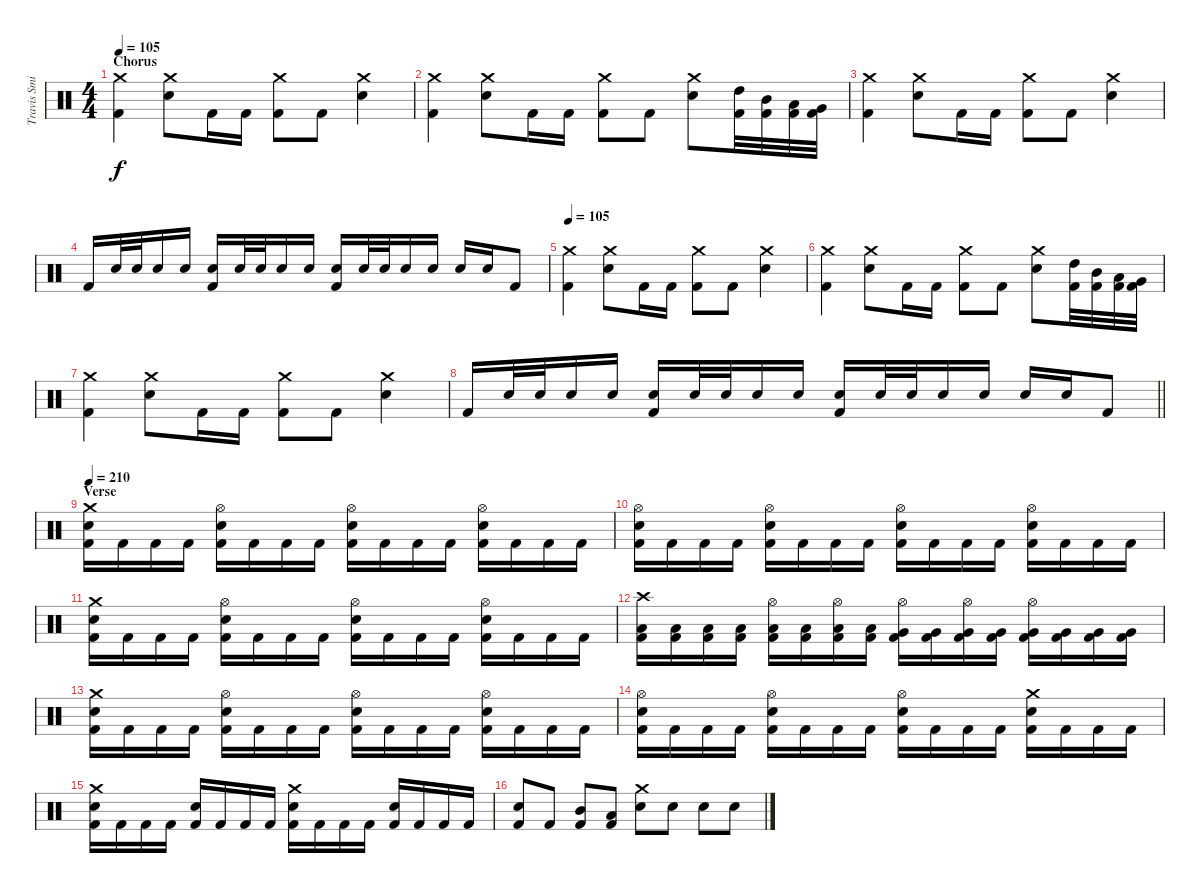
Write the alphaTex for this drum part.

\track ("Travis Smith" "Travis Smi") {instrument percussion}
\staff {score}
\articulation defaults
\ts (4 4)
\section ("" "Chorus")
\tempo 105
\clef neutral
\ks c
("Crash medium (hit)" "Kick (hit) 2").4{dy f} ("Crash medium (hit)" "Snare (hit) 2").8 "Kick (hit) 2".16 "Kick (hit) 2".16 ("Crash medium (hit)" "Kick (hit) 2").8 "Kick (hit) 2".8 ("Crash medium (hit)" "Snare (hit) 2").4 |
("Crash medium (hit)" "Kick (hit) 2").4 ("Crash medium (hit)" "Snare (hit) 2").8 "Kick (hit) 2".16 "Kick (hit) 2".16 ("Crash medium (hit)" "Kick (hit) 2").8 "Kick (hit) 2".8 ("Crash medium (hit)" "Snare (hit) 2").8 ("High Tom (hit)" "Kick (hit) 2").32 ("Mid Tom (hit)" "Kick (hit) 2").32 ("Low Tom (hit)" "Kick (hit) 2").32 ("Very Low Tom (hit)" "Kick (hit) 2").32 |
("Crash medium (hit)" "Kick (hit) 2").4 ("Crash medium (hit)" "Snare (hit) 2").8 "Kick (hit) 2".16 "Kick (hit) 2".16 ("Crash medium (hit)" "Kick (hit) 2").8 "Kick (hit) 2".8 ("Crash medium (hit)" "Snare (hit) 2").4 |
"Kick (hit) 2".16 "Snare (hit) 2".32 "Snare (hit) 2".32 "Snare (hit) 2".16 "Snare (hit) 2".16 ("Snare (hit) 2" "Kick (hit) 2").16 "Snare (hit) 2".32 "Snare (hit) 2".32 "Snare (hit) 2".16 "Snare (hit) 2".16 ("Snare (hit) 2" "Kick (hit) 2").16 "Snare (hit) 2".32 "Snare (hit) 2".32 "Snare (hit) 2".16 "Snare (hit) 2".16 "Snare (hit) 2".16 "Snare (hit) 2".16 "Kick (hit) 2".8 |
\tempo 105
("Crash medium (hit)" "Kick (hit) 2").4 ("Crash medium (hit)" "Snare (hit) 2").8 "Kick (hit) 2".16 "Kick (hit) 2".16 ("Crash medium (hit)" "Kick (hit) 2").8 "Kick (hit) 2".8 ("Crash medium (hit)" "Snare (hit) 2").4 |
("Crash medium (hit)" "Kick (hit) 2").4 ("Crash medium (hit)" "Snare (hit) 2").8 "Kick (hit) 2".16 "Kick (hit) 2".16 ("Crash medium (hit)" "Kick (hit) 2").8 "Kick (hit) 2".8 ("Crash medium (hit)" "Snare (hit) 2").8 ("High Tom (hit)" "Kick (hit) 2").32 ("Mid Tom (hit)" "Kick (hit) 2").32 ("Low Tom (hit)" "Kick (hit) 2").32 ("Very Low Tom (hit)" "Kick (hit) 2").32 |
("Crash medium (hit)" "Kick (hit) 2").4 ("Crash medium (hit)" "Snare (hit) 2").8 "Kick (hit) 2".16 "Kick (hit) 2".16 ("Crash medium (hit)" "Kick (hit) 2").8 "Kick (hit) 2".8 ("Crash medium (hit)" "Snare (hit) 2").4 |
\barLineRight lightlight "Kick (hit) 2".16 "Snare (hit) 2".32 "Snare (hit) 2".32 "Snare (hit) 2".16 "Snare (hit) 2".16
("Snare (hit) 2" "Kick (hit) 2").16 "Snare (hit) 2".32 "Snare (hit) 2".32 "Snare (hit) 2".16 "Snare (hit) 2".16 ("Snare (hit) 2" "Kick (hit) 2").16 "Snare (hit) 2".32 "Snare (hit) 2".32 "Snare (hit) 2".16 "Snare (hit) 2".16 "Snare (hit) 2".16 "Snare (hit) 2".16 "Kick (hit) 2".8 |
\section ("" "Verse")
\tempo 210
("Crash medium (hit)" "Snare (hit) 2" "Kick (hit) 2").16 "Kick (hit) 2".16 "Kick (hit) 2".16 "Kick (hit) 2".16 ("Hi-Hat (open)" "Snare (hit) 2" "Kick (hit) 2").16 "Kick (hit) 2".16 "Kick (hit) 2".16 "Kick (hit) 2".16 ("Hi-Hat (open)" "Snare (hit) 2" "Kick (hit) 2").16 "Kick (hit) 2".16 "Kick (hit) 2".16 "Kick (hit) 2".16 ("Hi-Hat (open)" "Snare (hit) 2" "Kick (hit) 2").16 "Kick (hit) 2".16 "Kick (hit) 2".16 "Kick (hit) 2".16 |
("Hi-Hat (open)" "Snare (hit) 2" "Kick (hit) 2").16 "Kick (hit) 2".16 "Kick (hit) 2".16 "Kick (hit) 2".16 ("Hi-Hat (open)" "Snare (hit) 2" "Kick (hit) 2").16 "Kick (hit) 2".16 "Kick (hit) 2".16 "Kick (hit) 2".16 ("Hi-Hat (open)" "Snare (hit) 2" "Kick (hit) 2").16 "Kick (hit) 2".16 "Kick (hit) 2".16 "Kick (hit) 2".16 ("Hi-Hat (open)" "Snare (hit) 2" "Kick (hit) 2").16 "Kick (hit) 2".16 "Kick (hit) 2".16 "Kick (hit) 2".16 |
("Crash medium (hit)" "Snare (hit) 2" "Kick (hit) 2").16 "Kick (hit) 2".16 "Kick (hit) 2".16 "Kick (hit) 2".16 ("Hi-Hat (open)" "Snare (hit) 2" "Kick (hit) 2").16 "Kick (hit) 2".16 "Kick (hit) 2".16 "Kick (hit) 2".16 ("Hi-Hat (open)" "Snare (hit) 2" "Kick (hit) 2").16 "Kick (hit) 2".16 "Kick (hit) 2".16 "Kick (hit) 2".16 ("Hi-Hat (open)" "Snare (hit) 2" "Kick (hit) 2").16 "Kick (hit) 2".16 "Kick (hit) 2".16 "Kick (hit) 2".16 |
("Crash high (hit)" "Low Tom (hit)" "Kick (hit) 2").16 ("Low Tom (hit)" "Kick (hit) 2").16 ("Low Tom (hit)" "Kick (hit) 2").16 ("Low Tom (hit)" "Kick (hit) 2").16 ("Hi-Hat (open)" "Low Tom (hit)" "Kick (hit) 2").16 ("Low Tom (hit)" "Kick (hit) 2").16 ("Hi-Hat (open)" "Low Tom (hit)" "Kick (hit) 2").16 ("Low Tom (hit)" "Kick (hit) 2").16 ("Hi-Hat (open)" "Very Low Tom (hit)" "Kick (hit) 2").16 ("Very Low Tom (hit)" "Kick (hit) 2").16 ("Hi-Hat (open)" "Very Low Tom (hit)" "Kick (hit) 2").16 ("Very Low Tom (hit)" "Kick (hit) 2").16 ("Hi-Hat (open)" "Very Low Tom (hit)" "Kick (hit) 2").16 ("Very Low Tom (hit)" "Kick (hit) 2").16 ("Very Low Tom (hit)" "Kick (hit) 2").16 ("Very Low Tom (hit)" "Kick (hit) 2").16 |
("Crash medium (hit)" "Snare (hit) 2" "Kick (hit) 2").16 "Kick (hit) 2".16 "Kick (hit) 2".16 "Kick (hit) 2".16 ("Hi-Hat (open)" "Snare (hit) 2" "Kick (hit) 2").16 "Kick (hit) 2".16 "Kick (hit) 2".16 "Kick (hit) 2".16 ("Hi-Hat (open)" "Snare (hit) 2" "Kick (hit) 2").16 "Kick (hit) 2".16 "Kick (hit) 2".16 "Kick (hit) 2".16 ("Hi-Hat (open)" "Snare (hit) 2" "Kick (hit) 2").16 "Kick (hit) 2".16 "Kick (hit) 2".16 "Kick (hit) 2".16 |
("Hi-Hat (open)" "Snare (hit) 2" "Kick (hit) 2").16 "Kick (hit) 2".16 "Kick (hit) 2".16 "Kick (hit) 2".16 ("Hi-Hat (open)" "Snare (hit) 2" "Kick (hit) 2").16 "Kick (hit) 2".16 "Kick (hit) 2".16 "Kick (hit) 2".16 ("Hi-Hat (open)" "Snare (hit) 2" "Kick (hit) 2").16 "Kick (hit) 2".16 "Kick (hit) 2".16 "Kick (hit) 2".16 ("Crash medium (hit)" "Snare (hit) 2" "Kick (hit) 2").16 "Kick (hit) 2".16 "Kick (hit) 2".16 "Kick (hit) 2".16 |
("Crash medium (hit)" "Snare (hit) 2" "Kick (hit) 2").16 "Kick (hit) 2".16 "Kick (hit) 2".16 "Kick (hit) 2".16 ("Snare (hit) 2" "Kick (hit) 2").16 "Kick (hit) 2".16 "Kick (hit) 2".16 "Kick (hit) 2".16 ("Crash medium (hit)" "Snare (hit) 2" "Kick (hit) 2").16 "Kick (hit) 2".16 "Kick (hit) 2".16 "Kick (hit) 2".16 ("Snare (hit) 2" "Kick (hit) 2").16 "Kick (hit) 2".16 "Kick (hit) 2".16 "Kick (hit) 2".16 |
("Snare (hit) 2" "Kick (hit) 2").8 "Kick (hit) 2".8 ("Mid Tom (hit)" "Kick (hit) 2").8 ("Low Tom (hit)" "Kick (hit) 2").8 ("Crash medium (hit)" "Snare (hit) 2").8 "Snare (hit) 2".8 "Snare (hit) 2".8 "Snare (hit) 2".8
